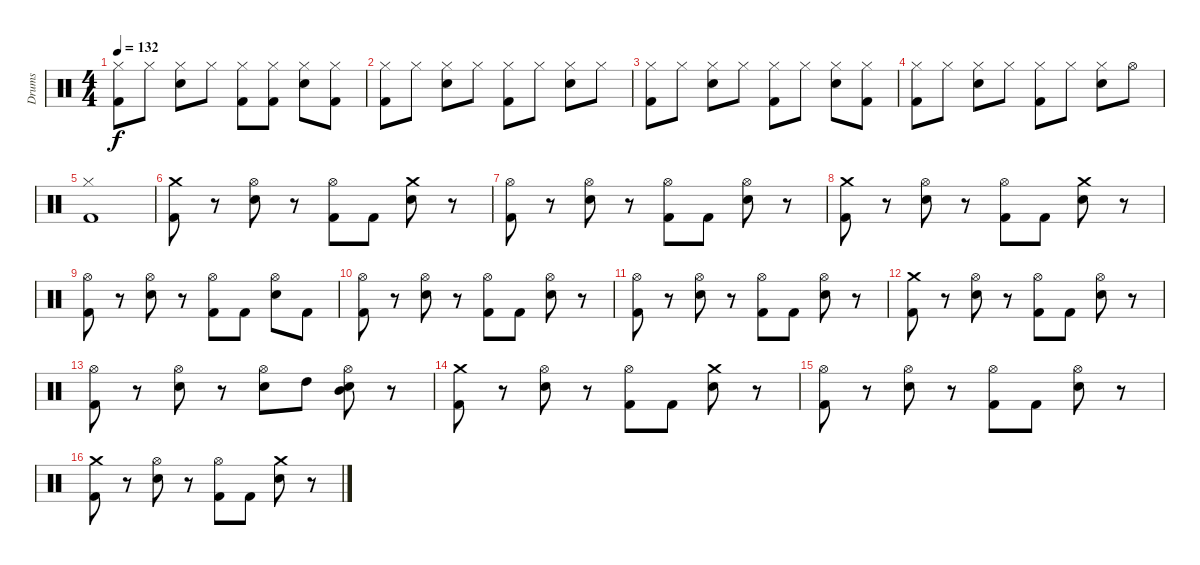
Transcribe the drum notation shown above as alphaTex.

\track ("Drums" "Drums") {instrument percussion}
\staff {score}
\articulation defaults
\ts (4 4)
\tempo 132
\clef neutral
\ks c
("Kick (hit) 2" "Hi-Hat (closed)").8{dy f} "Hi-Hat (closed)".8 ("Snare (hit) 2" "Hi-Hat (closed)").8 "Hi-Hat (closed)".8 ("Kick (hit) 2" "Hi-Hat (closed)").8 ("Kick (hit) 2" "Hi-Hat (closed)").8 ("Snare (hit) 2" "Hi-Hat (closed)").8 ("Kick (hit) 2" "Hi-Hat (closed)").8 |
("Kick (hit) 2" "Hi-Hat (closed)").8 "Hi-Hat (closed)".8 ("Snare (hit) 2" "Hi-Hat (closed)").8 "Hi-Hat (closed)".8 ("Kick (hit) 2" "Hi-Hat (closed)").8 "Hi-Hat (closed)".8 ("Snare (hit) 2" "Hi-Hat (closed)").8 "Hi-Hat (closed)".8 |
("Kick (hit) 2" "Hi-Hat (closed)").8 "Hi-Hat (closed)".8 ("Snare (hit) 2" "Hi-Hat (closed)").8 "Hi-Hat (closed)".8 ("Kick (hit) 2" "Hi-Hat (closed)").8 "Hi-Hat (closed)".8 ("Snare (hit) 2" "Hi-Hat (closed)").8 ("Kick (hit) 2" "Hi-Hat (closed)").8 |
("Kick (hit) 2" "Hi-Hat (closed)").8 "Hi-Hat (closed)".8 ("Snare (hit) 2" "Hi-Hat (closed)").8 "Hi-Hat (closed)".8 ("Kick (hit) 2" "Hi-Hat (closed)").8 "Hi-Hat (closed)".8 ("Snare (hit) 2" "Hi-Hat (closed)").8 "Hi-Hat (open)".8 |
("Kick (hit) 2" "Hi-Hat (closed)").1 |
("Kick (hit) 2" "Crash medium (hit)").8 r.8 ("Snare (hit) 2" "Hi-Hat (open)").8 r.8 ("Kick (hit) 2" "Hi-Hat (open)").8 "Kick (hit) 2".8 ("Snare (hit) 2" "Crash medium (hit)").8 r.8 |
("Kick (hit) 2" "Hi-Hat (open)").8 r.8 ("Snare (hit) 2" "Hi-Hat (open)").8 r.8 ("Kick (hit) 2" "Hi-Hat (open)").8 "Kick (hit) 2".8 ("Snare (hit) 2" "Hi-Hat (open)").8 r.8 |
("Kick (hit) 2" "Crash medium (hit)").8 r.8 ("Snare (hit) 2" "Hi-Hat (open)").8 r.8 ("Kick (hit) 2" "Hi-Hat (open)").8 "Kick (hit) 2".8 ("Snare (hit) 2" "Crash medium (hit)").8 r.8 |
("Kick (hit) 2" "Hi-Hat (open)").8 r.8 ("Snare (hit) 2" "Hi-Hat (open)").8 r.8 ("Kick (hit) 2" "Hi-Hat (open)").8 "Kick (hit) 2".8 ("Snare (hit) 2" "Hi-Hat (open)").8 "Kick (hit) 2".8 |
("Kick (hit) 2" "Hi-Hat (open)").8 r.8 ("Snare (hit) 2" "Hi-Hat (open)").8 r.8 ("Kick (hit) 2" "Hi-Hat (open)").8 "Kick (hit) 2".8 ("Snare (hit) 2" "Hi-Hat (open)").8 r.8 |
("Kick (hit) 2" "Hi-Hat (open)").8 r.8 ("Snare (hit) 2" "Hi-Hat (open)").8 r.8 ("Kick (hit) 2" "Hi-Hat (open)").8 "Kick (hit) 2".8 ("Snare (hit) 2" "Hi-Hat (open)").8 r.8 |
("Kick (hit) 2" "Crash medium (hit)").8 r.8 ("Snare (hit) 2" "Hi-Hat (open)").8 r.8 ("Kick (hit) 2" "Hi-Hat (open)").8 "Kick (hit) 2".8 ("Snare (hit) 2" "Hi-Hat (open)").8 r.8 |
("Kick (hit) 2" "Hi-Hat (open)").8 r.8 ("Snare (hit) 2" "Hi-Hat (open)").8 r.8 ("Snare (hit) 2" "Hi-Hat (open)").8 "High Tom (hit)".8 ("Mid Tom (hit)" "Snare (hit) 2" "Hi-Hat (open)").8 r.8 |
("Kick (hit) 2" "Crash medium (hit)").8 r.8 ("Snare (hit) 2" "Hi-Hat (open)").8 r.8 ("Kick (hit) 2" "Hi-Hat (open)").8 "Kick (hit) 2".8 ("Snare (hit) 2" "Crash medium (hit)").8 r.8 |
("Kick (hit) 2" "Hi-Hat (open)").8 r.8 ("Snare (hit) 2" "Hi-Hat (open)").8 r.8 ("Kick (hit) 2" "Hi-Hat (open)").8 "Kick (hit) 2".8 ("Snare (hit) 2" "Hi-Hat (open)").8 r.8 |
("Kick (hit) 2" "Crash medium (hit)").8 r.8 ("Snare (hit) 2" "Hi-Hat (open)").8 r.8 ("Kick (hit) 2" "Hi-Hat (open)").8 "Kick (hit) 2".8 ("Snare (hit) 2" "Crash medium (hit)").8 r.8
